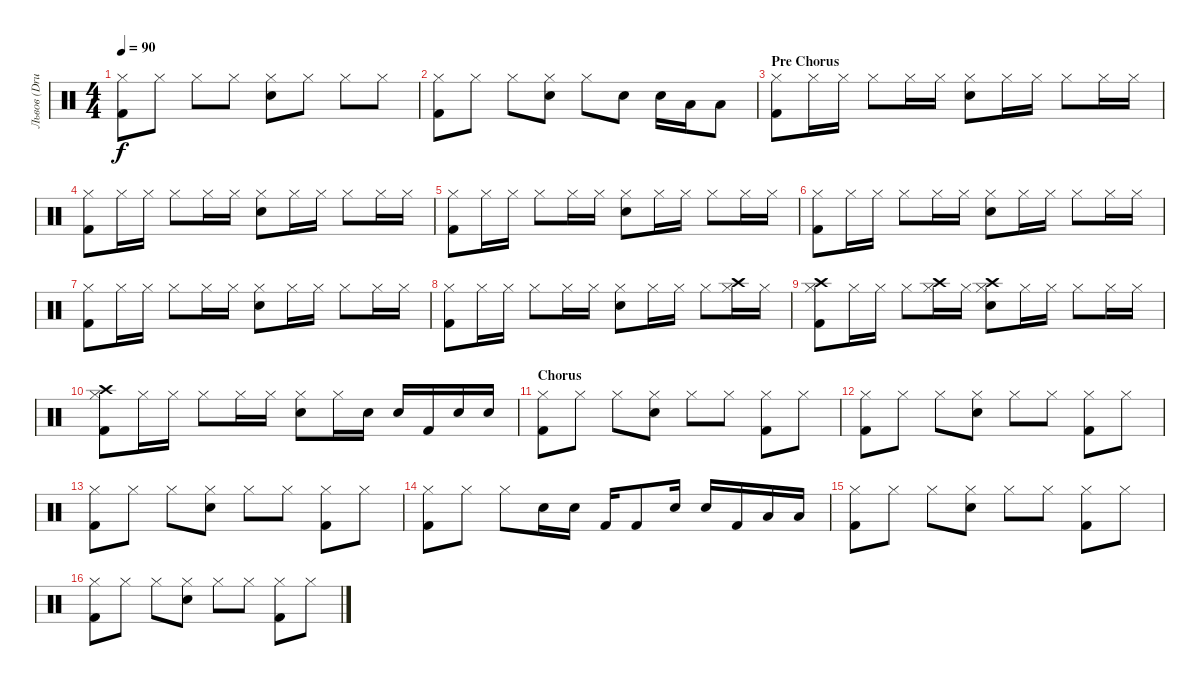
\track ("Львов (Drums)" "Львов (Dru") {instrument percussion}
\staff {score}
\articulation defaults
\ts (4 4)
\tempo 90
\clef neutral
\ks c
("Kick (hit) 2" "Hi-Hat (closed)").8{dy f} "Hi-Hat (closed)".8 "Hi-Hat (closed)".8 "Hi-Hat (closed)".8 ("Electric Snare (hit)" "Hi-Hat (closed)").8 "Hi-Hat (closed)".8 "Hi-Hat (closed)".8 "Hi-Hat (closed)".8 |
("Kick (hit) 2" "Hi-Hat (closed)").8 "Hi-Hat (closed)".8 "Hi-Hat (closed)".8 ("Electric Snare (hit)" "Hi-Hat (closed)").8 "Hi-Hat (closed)".8 "Electric Snare (hit)".8 "Electric Snare (hit)".16 "Low Tom (hit)".16 "Low Tom (hit)".8 |
\section ("" "Pre Chorus")
("Kick (hit) 2" "Hi-Hat (closed)").8 "Hi-Hat (closed)".16 "Hi-Hat (closed)".16 "Hi-Hat (closed)".8 "Hi-Hat (closed)".16 "Hi-Hat (closed)".16 ("Electric Snare (hit)" "Hi-Hat (closed)").8 "Hi-Hat (closed)".16 "Hi-Hat (closed)".16 "Hi-Hat (closed)".8 "Hi-Hat (closed)".16 "Hi-Hat (closed)".16 |
("Kick (hit) 2" "Hi-Hat (closed)").8 "Hi-Hat (closed)".16 "Hi-Hat (closed)".16 "Hi-Hat (closed)".8 "Hi-Hat (closed)".16 "Hi-Hat (closed)".16 ("Electric Snare (hit)" "Hi-Hat (closed)").8 "Hi-Hat (closed)".16 "Hi-Hat (closed)".16 "Hi-Hat (closed)".8 "Hi-Hat (closed)".16 "Hi-Hat (closed)".16 |
("Kick (hit) 2" "Hi-Hat (closed)").8 "Hi-Hat (closed)".16 "Hi-Hat (closed)".16 "Hi-Hat (closed)".8 "Hi-Hat (closed)".16 "Hi-Hat (closed)".16 ("Electric Snare (hit)" "Hi-Hat (closed)").8 "Hi-Hat (closed)".16 "Hi-Hat (closed)".16 "Hi-Hat (closed)".8 "Hi-Hat (closed)".16 "Hi-Hat (closed)".16 |
("Kick (hit) 2" "Hi-Hat (closed)").8 "Hi-Hat (closed)".16 "Hi-Hat (closed)".16 "Hi-Hat (closed)".8 "Hi-Hat (closed)".16 "Hi-Hat (closed)".16 ("Electric Snare (hit)" "Hi-Hat (closed)").8 "Hi-Hat (closed)".16 "Hi-Hat (closed)".16 "Hi-Hat (closed)".8 "Hi-Hat (closed)".16 "Hi-Hat (closed)".16 |
("Kick (hit) 2" "Hi-Hat (closed)").8 "Hi-Hat (closed)".16 "Hi-Hat (closed)".16 "Hi-Hat (closed)".8 "Hi-Hat (closed)".16 "Hi-Hat (closed)".16 ("Electric Snare (hit)" "Hi-Hat (closed)").8 "Hi-Hat (closed)".16 "Hi-Hat (closed)".16 "Hi-Hat (closed)".8 "Hi-Hat (closed)".16 "Hi-Hat (closed)".16 |
("Kick (hit) 2" "Hi-Hat (closed)").8 "Hi-Hat (closed)".16 "Hi-Hat (closed)".16 "Hi-Hat (closed)".8 "Hi-Hat (closed)".16 "Hi-Hat (closed)".16 ("Electric Snare (hit)" "Hi-Hat (closed)").8 "Hi-Hat (closed)".16 "Hi-Hat (closed)".16 "Hi-Hat (closed)".8 ("Crash high (hit)" "Hi-Hat (closed)").16 "Hi-Hat (closed)".16 |
("Kick (hit) 2" "Crash high (hit)" "Hi-Hat (closed)").8 "Hi-Hat (closed)".16 "Hi-Hat (closed)".16 "Hi-Hat (closed)".8 ("Crash high (hit)" "Hi-Hat (closed)").16 "Hi-Hat (closed)".16 ("Electric Snare (hit)" "Crash high (hit)" "Hi-Hat (closed)").8 "Hi-Hat (closed)".16 "Hi-Hat (closed)".16 "Hi-Hat (closed)".8 "Hi-Hat (closed)".16 "Hi-Hat (closed)".16 |
("Kick (hit) 2" "Crash high (hit)" "Hi-Hat (closed)").8 "Hi-Hat (closed)".16 "Hi-Hat (closed)".16 "Hi-Hat (closed)".8 "Hi-Hat (closed)".16 "Hi-Hat (closed)".16 ("Electric Snare (hit)" "Hi-Hat (closed)").8 "Hi-Hat (closed)".16 "Electric Snare (hit)".16 "Electric Snare (hit)".16 "Kick (hit) 2".16 "Electric Snare (hit)".16 "Electric Snare (hit)".16 |
\section ("" "Chorus")
("Kick (hit) 2" "Hi-Hat (closed)").8 "Hi-Hat (closed)".8 "Hi-Hat (closed)".8 ("Electric Snare (hit)" "Hi-Hat (closed)").8 "Hi-Hat (closed)".8 "Hi-Hat (closed)".8 ("Kick (hit) 2" "Hi-Hat (closed)").8 "Hi-Hat (closed)".8 |
("Kick (hit) 2" "Hi-Hat (closed)").8 "Hi-Hat (closed)".8 "Hi-Hat (closed)".8 ("Electric Snare (hit)" "Hi-Hat (closed)").8 "Hi-Hat (closed)".8 "Hi-Hat (closed)".8 ("Kick (hit) 2" "Hi-Hat (closed)").8 "Hi-Hat (closed)".8 |
("Kick (hit) 2" "Hi-Hat (closed)").8 "Hi-Hat (closed)".8 "Hi-Hat (closed)".8 ("Electric Snare (hit)" "Hi-Hat (closed)").8 "Hi-Hat (closed)".8 "Hi-Hat (closed)".8 ("Kick (hit) 2" "Hi-Hat (closed)").8 "Hi-Hat (closed)".8 |
("Kick (hit) 2" "Hi-Hat (closed)").8 "Hi-Hat (closed)".8 "Hi-Hat (closed)".8 "Electric Snare (hit)".16 "Electric Snare (hit)".16 "Kick (hit) 2".16 "Kick (hit) 2".8 "Electric Snare (hit)".16 "Electric Snare (hit)".16 "Kick (hit) 2".16 "Low Tom (hit)".16 "Low Tom (hit)".16 |
("Kick (hit) 2" "Hi-Hat (closed)").8 "Hi-Hat (closed)".8 "Hi-Hat (closed)".8 ("Electric Snare (hit)" "Hi-Hat (closed)").8 "Hi-Hat (closed)".8 "Hi-Hat (closed)".8 ("Kick (hit) 2" "Hi-Hat (closed)").8 "Hi-Hat (closed)".8 |
("Kick (hit) 2" "Hi-Hat (closed)").8 "Hi-Hat (closed)".8 "Hi-Hat (closed)".8 ("Electric Snare (hit)" "Hi-Hat (closed)").8 "Hi-Hat (closed)".8 "Hi-Hat (closed)".8 ("Kick (hit) 2" "Hi-Hat (closed)").8 "Hi-Hat (closed)".8
